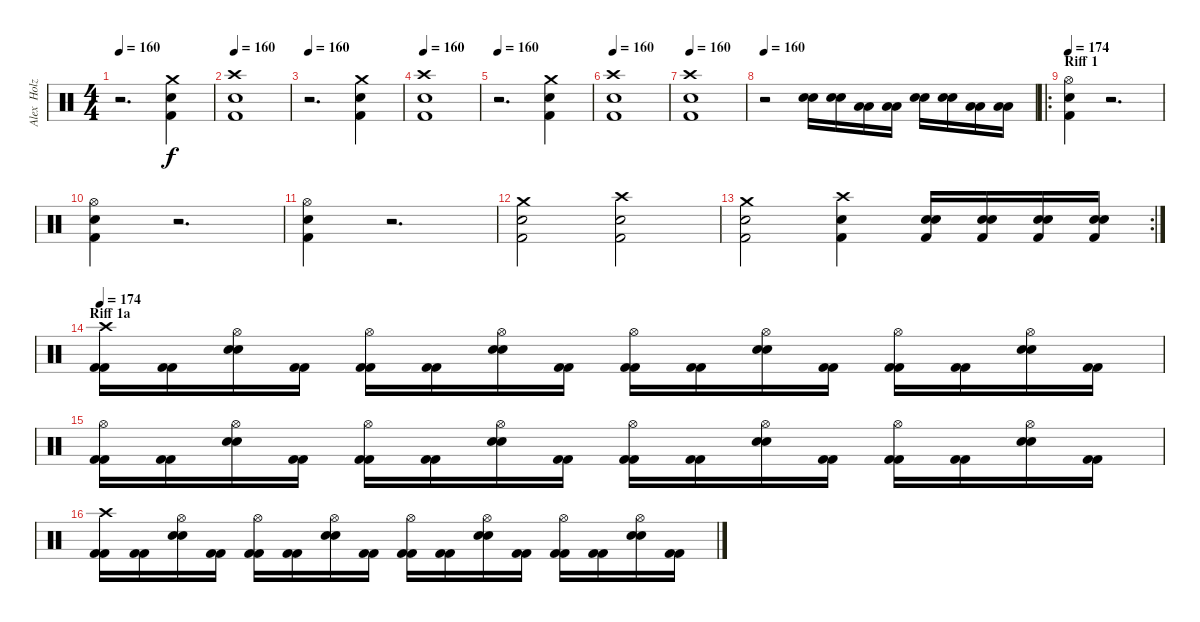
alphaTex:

\track ("Alex  Holzwarth (Drums)" "Alex  Holz") {instrument percussion}
\staff {score}
\articulation defaults
\ts (4 4)
\tempo 160
\clef neutral
\ks c
r.2{d dy f} ("Crash medium (hit)" "Snare (hit) 2" "Kick (hit) 2").4 |
\tempo 160
("Crash high (hit)" "Snare (hit) 2" "Kick (hit) 2").1 |
\tempo 160
r.2{d} ("Crash medium (hit)" "Snare (hit) 2" "Kick (hit) 2").4 |
\tempo 160
("Crash high (hit)" "Snare (hit) 2" "Kick (hit) 2").1 |
\tempo 160
r.2{d} ("Crash medium (hit)" "Snare (hit) 2" "Kick (hit) 2").4 |
\tempo 160
("Crash high (hit)" "Snare (hit) 2" "Kick (hit) 2").1 |
\tempo 160
("Crash high (hit)" "Snare (hit) 2" "Kick (hit) 2").1 |
\tempo 160
r.2 ("Snare (hit) 2" "Snare (hit) 2").16 ("Snare (hit) 2" "Snare (hit) 2").16 ("Low Tom (hit)" "Low Tom (hit)").16 ("Low Tom (hit)" "Low Tom (hit)").16 ("Snare (hit) 2" "Snare (hit) 2").16 ("Snare (hit) 2" "Snare (hit) 2").16 ("Low Tom (hit)" "Low Tom (hit)").16 ("Low Tom (hit)" "Low Tom (hit)").16 |
\ro
\section ("" "Riff 1")
\tempo 174
("Hi-Hat (open)" "Snare (hit) 2" "Kick (hit) 2").4 r.2{d} |
("Hi-Hat (open)" "Snare (hit) 2" "Kick (hit) 2").4 r.2{d} |
("Hi-Hat (open)" "Snare (hit) 2" "Kick (hit) 2").4 r.2{d} |
("Crash medium (hit)" "Snare (hit) 2" "Kick (hit) 2").2 ("Crash high (hit)" "Snare (hit) 2" "Kick (hit) 2").2 |
\rc 2
("Crash medium (hit)" "Snare (hit) 2" "Kick (hit) 2").2 ("Crash high (hit)" "Snare (hit) 2" "Kick (hit) 2").4 ("Kick (hit) 2" "Snare (hit) 2" "Snare (hit) 2").16 ("Kick (hit) 2" "Snare (hit) 2" "Snare (hit) 2").16 ("Kick (hit) 2" "Snare (hit) 2" "Snare (hit) 2").16 ("Kick (hit) 2" "Snare (hit) 2" "Snare (hit) 2").16 |
\section ("" "Riff 1a")
\tempo 174
("Crash high (hit)" "Kick (hit) 2" "Kick (hit) 2").16 ("Kick (hit) 2" "Kick (hit) 2").16 ("Hi-Hat (open)" "Snare (hit) 2" "Snare (hit) 2").16 ("Kick (hit) 2" "Kick (hit) 2").16 ("Hi-Hat (open)" "Kick (hit) 2" "Kick (hit) 2").16 ("Kick (hit) 2" "Kick (hit) 2").16 ("Hi-Hat (open)" "Snare (hit) 2" "Snare (hit) 2").16 ("Kick (hit) 2" "Kick (hit) 2").16 ("Hi-Hat (open)" "Kick (hit) 2" "Kick (hit) 2").16 ("Kick (hit) 2" "Kick (hit) 2").16 ("Hi-Hat (open)" "Snare (hit) 2" "Snare (hit) 2").16 ("Kick (hit) 2" "Kick (hit) 2").16 ("Hi-Hat (open)" "Kick (hit) 2" "Kick (hit) 2").16 ("Kick (hit) 2" "Kick (hit) 2").16 ("Hi-Hat (open)" "Snare (hit) 2" "Snare (hit) 2").16 ("Kick (hit) 2" "Kick (hit) 2").16 |
("Hi-Hat (open)" "Kick (hit) 2" "Kick (hit) 2").16 ("Kick (hit) 2" "Kick (hit) 2").16 ("Hi-Hat (open)" "Snare (hit) 2" "Snare (hit) 2").16 ("Kick (hit) 2" "Kick (hit) 2").16 ("Hi-Hat (open)" "Kick (hit) 2" "Kick (hit) 2").16 ("Kick (hit) 2" "Kick (hit) 2").16 ("Hi-Hat (open)" "Snare (hit) 2" "Snare (hit) 2").16 ("Kick (hit) 2" "Kick (hit) 2").16 ("Hi-Hat (open)" "Kick (hit) 2" "Kick (hit) 2").16 ("Kick (hit) 2" "Kick (hit) 2").16 ("Hi-Hat (open)" "Snare (hit) 2" "Snare (hit) 2").16 ("Kick (hit) 2" "Kick (hit) 2").16 ("Hi-Hat (open)" "Kick (hit) 2" "Kick (hit) 2").16 ("Kick (hit) 2" "Kick (hit) 2").16 ("Hi-Hat (open)" "Snare (hit) 2" "Snare (hit) 2").16 ("Kick (hit) 2" "Kick (hit) 2").16 |
("Crash high (hit)" "Kick (hit) 2" "Kick (hit) 2").16 ("Kick (hit) 2" "Kick (hit) 2").16 ("Hi-Hat (open)" "Snare (hit) 2" "Snare (hit) 2").16 ("Kick (hit) 2" "Kick (hit) 2").16 ("Hi-Hat (open)" "Kick (hit) 2" "Kick (hit) 2").16 ("Kick (hit) 2" "Kick (hit) 2").16 ("Hi-Hat (open)" "Snare (hit) 2" "Snare (hit) 2").16 ("Kick (hit) 2" "Kick (hit) 2").16 ("Hi-Hat (open)" "Kick (hit) 2" "Kick (hit) 2").16 ("Kick (hit) 2" "Kick (hit) 2").16 ("Hi-Hat (open)" "Snare (hit) 2" "Snare (hit) 2").16 ("Kick (hit) 2" "Kick (hit) 2").16 ("Hi-Hat (open)" "Kick (hit) 2" "Kick (hit) 2").16 ("Kick (hit) 2" "Kick (hit) 2").16 ("Hi-Hat (open)" "Snare (hit) 2" "Snare (hit) 2").16 ("Kick (hit) 2" "Kick (hit) 2").16
